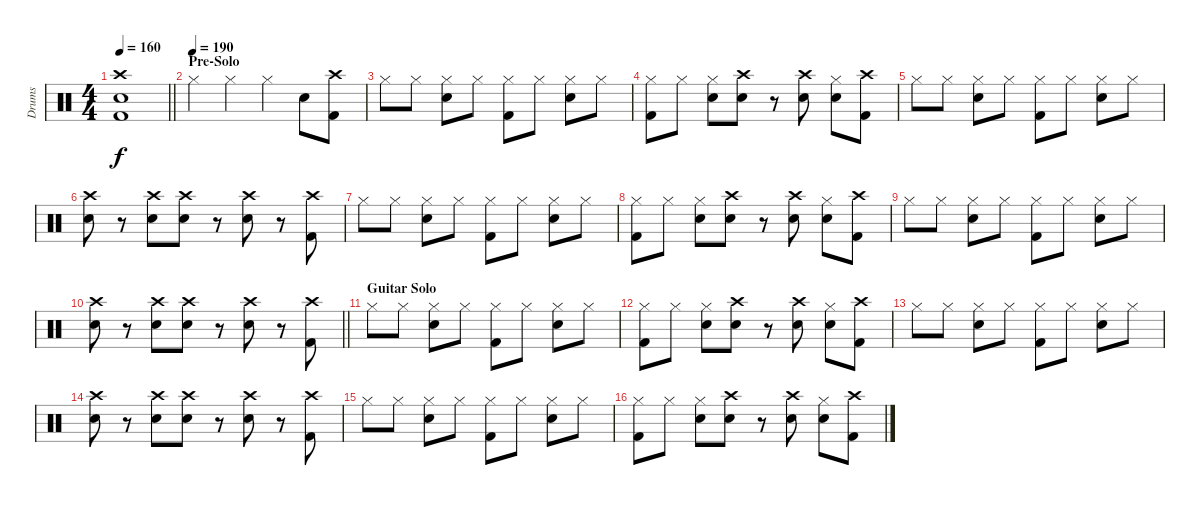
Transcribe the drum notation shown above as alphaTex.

\track ("Drums" "Drums") {instrument percussion}
\staff {score}
\articulation defaults
\ts (4 4)
\tempo 160
\clef neutral
\barLineRight lightlight
\ks c
("Crash high (hit)" "Kick (hit) 2" "Snare (hit) 2").1{dy f} |
\section ("" "Pre-Solo")
\tempo (190)
"Hi-Hat (closed)".4 "Hi-Hat (closed)".4 "Hi-Hat (closed)".4 "Snare (hit) 2".8 ("Kick (hit) 2" "Crash high (hit)").8 |
"Hi-Hat (closed)".8 "Hi-Hat (closed)".8 ("Hi-Hat (closed)" "Snare (hit) 2").8 "Hi-Hat (closed)".8 ("Hi-Hat (closed)" "Kick (hit) 2").8 "Hi-Hat (closed)".8 ("Hi-Hat (closed)" "Snare (hit) 2").8 "Hi-Hat (closed)".8 |
("Hi-Hat (closed)" "Kick (hit) 2").8 "Hi-Hat (closed)".8 ("Hi-Hat (closed)" "Snare (hit) 2").8 ("Crash high (hit)" "Snare (hit) 2").8 r.8 ("Crash high (hit)" "Snare (hit) 2").8 ("Hi-Hat (closed)" "Snare (hit) 2").8 ("Crash high (hit)" "Kick (hit) 2").8 |
"Hi-Hat (closed)".8 "Hi-Hat (closed)".8 ("Hi-Hat (closed)" "Snare (hit) 2").8 "Hi-Hat (closed)".8 ("Hi-Hat (closed)" "Kick (hit) 2").8 "Hi-Hat (closed)".8 ("Hi-Hat (closed)" "Snare (hit) 2").8 "Hi-Hat (closed)".8 |
("Crash high (hit)" "Snare (hit) 2").8 r.8 ("Crash high (hit)" "Snare (hit) 2").8 ("Crash high (hit)" "Snare (hit) 2").8 r.8 ("Crash high (hit)" "Snare (hit) 2").8 r.8 ("Crash high (hit)" "Kick (hit) 2").8 |
"Hi-Hat (closed)".8 "Hi-Hat (closed)".8 ("Hi-Hat (closed)" "Snare (hit) 2").8 "Hi-Hat (closed)".8 ("Hi-Hat (closed)" "Kick (hit) 2").8 "Hi-Hat (closed)".8 ("Hi-Hat (closed)" "Snare (hit) 2").8 "Hi-Hat (closed)".8 |
("Hi-Hat (closed)" "Kick (hit) 2").8 "Hi-Hat (closed)".8 ("Hi-Hat (closed)" "Snare (hit) 2").8 ("Crash high (hit)" "Snare (hit) 2").8 r.8 ("Crash high (hit)" "Snare (hit) 2").8 ("Hi-Hat (closed)" "Snare (hit) 2").8 ("Crash high (hit)" "Kick (hit) 2").8 |
"Hi-Hat (closed)".8 "Hi-Hat (closed)".8 ("Hi-Hat (closed)" "Snare (hit) 2").8 "Hi-Hat (closed)".8 ("Hi-Hat (closed)" "Kick (hit) 2").8 "Hi-Hat (closed)".8 ("Hi-Hat (closed)" "Snare (hit) 2").8 "Hi-Hat (closed)".8 |
\barLineRight lightlight
("Crash high (hit)" "Snare (hit) 2").8 r.8 ("Crash high (hit)" "Snare (hit) 2").8 ("Crash high (hit)" "Snare (hit) 2").8 r.8 ("Crash high (hit)" "Snare (hit) 2").8 r.8 ("Crash high (hit)" "Kick (hit) 2").8 |
\section ("" "Guitar Solo")
"Hi-Hat (closed)".8 "Hi-Hat (closed)".8 ("Hi-Hat (closed)" "Snare (hit) 2").8 "Hi-Hat (closed)".8 ("Hi-Hat (closed)" "Kick (hit) 2").8 "Hi-Hat (closed)".8 ("Hi-Hat (closed)" "Snare (hit) 2").8 "Hi-Hat (closed)".8 |
("Hi-Hat (closed)" "Kick (hit) 2").8 "Hi-Hat (closed)".8 ("Hi-Hat (closed)" "Snare (hit) 2").8 ("Crash high (hit)" "Snare (hit) 2").8 r.8 ("Crash high (hit)" "Snare (hit) 2").8 ("Hi-Hat (closed)" "Snare (hit) 2").8 ("Crash high (hit)" "Kick (hit) 2").8 |
"Hi-Hat (closed)".8 "Hi-Hat (closed)".8 ("Hi-Hat (closed)" "Snare (hit) 2").8 "Hi-Hat (closed)".8 ("Hi-Hat (closed)" "Kick (hit) 2").8 "Hi-Hat (closed)".8 ("Hi-Hat (closed)" "Snare (hit) 2").8 "Hi-Hat (closed)".8 |
("Crash high (hit)" "Snare (hit) 2").8 r.8 ("Crash high (hit)" "Snare (hit) 2").8 ("Crash high (hit)" "Snare (hit) 2").8 r.8 ("Crash high (hit)" "Snare (hit) 2").8 r.8 ("Crash high (hit)" "Kick (hit) 2").8 |
"Hi-Hat (closed)".8 "Hi-Hat (closed)".8 ("Hi-Hat (closed)" "Snare (hit) 2").8 "Hi-Hat (closed)".8 ("Hi-Hat (closed)" "Kick (hit) 2").8 "Hi-Hat (closed)".8 ("Hi-Hat (closed)" "Snare (hit) 2").8 "Hi-Hat (closed)".8 |
("Hi-Hat (closed)" "Kick (hit) 2").8 "Hi-Hat (closed)".8 ("Hi-Hat (closed)" "Snare (hit) 2").8 ("Crash high (hit)" "Snare (hit) 2").8 r.8 ("Crash high (hit)" "Snare (hit) 2").8 ("Hi-Hat (closed)" "Snare (hit) 2").8 ("Crash high (hit)" "Kick (hit) 2").8
